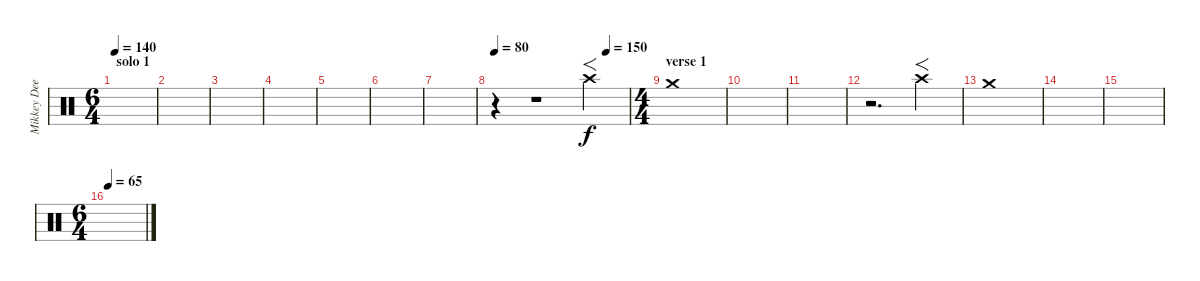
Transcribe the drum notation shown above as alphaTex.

\track ("Mikkey Dee" "Mikkey Dee") {instrument percussion}
\staff {score}
\articulation defaults
\ts (6 4)
\section ("" "solo 1")
\tempo 140
\clef neutral
\ks c
|
|
|
|
|
|
|
\tempo 80
\tempo (150 0.8333333333333334)
r.4 r.1 "Crash high (hit)".4{f} |
\ts (4 4)
\section ("" "verse 1")
"Crash medium (hit)".1 |
|
|
r.2{d} "Crash high (hit)".4{f} |
"Crash medium (hit)".1 |
|
|
\ts (6 4)
\tempo 65
